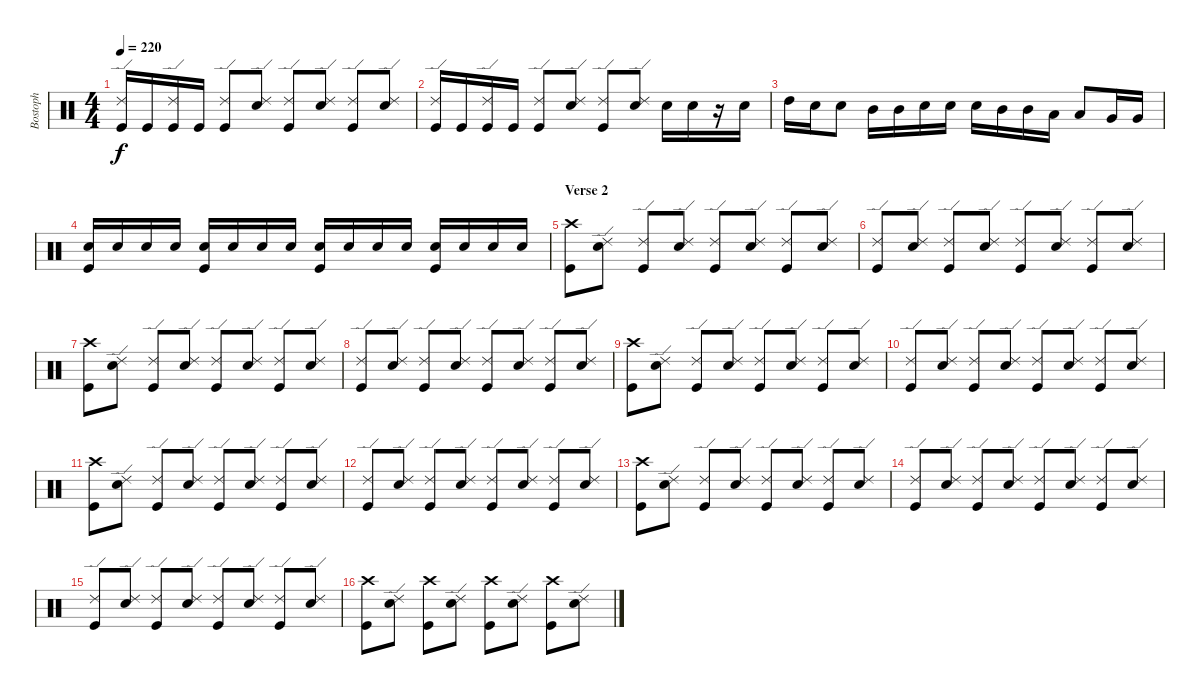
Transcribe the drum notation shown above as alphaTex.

\track ("Bostoph" "Bostoph") {instrument percussion}
\staff {score}
\articulation defaults
\ts (4 4)
\tempo 220
\clef neutral
\ks c
("Ride (edge) 2" "Kick (hit)").16{dy f} "Kick (hit)".16 ("Ride (edge) 2" "Kick (hit)").16 "Kick (hit)".16 ("Ride (edge) 2" "Kick (hit)").8 ("Ride (edge) 2" "Snare (hit) 2").8 ("Ride (edge) 2" "Kick (hit)").8 ("Ride (edge) 2" "Snare (hit) 2").8 ("Ride (edge) 2" "Kick (hit)").8 ("Ride (edge) 2" "Snare (hit) 2").8 |
("Ride (edge) 2" "Kick (hit)").16 "Kick (hit)".16 ("Ride (edge) 2" "Kick (hit)").16 "Kick (hit)".16 ("Ride (edge) 2" "Kick (hit)").8 ("Ride (edge) 2" "Snare (hit) 2").8 ("Ride (edge) 2" "Kick (hit)").8 ("Ride (edge) 2" "Snare (hit) 2").8 "Snare (hit) 2".16 "Snare (hit) 2".16 r.16 "Snare (hit) 2".16 |
"High Tom (hit)".16 "Snare (hit) 2".16 "Snare (hit) 2".8 "Mid Tom (hit)".16 "Mid Tom (hit)".16 "Snare (hit) 2".16 "Snare (hit) 2".16 "Snare (hit) 2".16 "Mid Tom (hit)".16 "Mid Tom (hit)".16 "Low Tom (hit)".16 "Low Tom (hit)".8 "Very Low Tom (hit)".16 "Very Low Tom (hit)".16 |
("Snare (hit) 2" "Kick (hit)").16 "Snare (hit) 2".16 "Snare (hit) 2".16 "Snare (hit) 2".16 ("Snare (hit) 2" "Kick (hit)").16 "Snare (hit) 2".16 "Snare (hit) 2".16 "Snare (hit) 2".16 ("Snare (hit) 2" "Kick (hit)").16 "Snare (hit) 2".16 "Snare (hit) 2".16 "Snare (hit) 2".16 ("Snare (hit) 2" "Kick (hit)").16 "Snare (hit) 2".16 "Snare (hit) 2".16 "Snare (hit) 2".16 |
\section ("" "Verse 2")
("Crash high (hit)" "Kick (hit)").8 ("Ride (edge) 2" "Snare (hit) 2").8 ("Ride (edge) 2" "Kick (hit)").8 ("Ride (edge) 2" "Snare (hit) 2").8 ("Ride (edge) 2" "Kick (hit)").8 ("Ride (edge) 2" "Snare (hit) 2").8 ("Ride (edge) 2" "Kick (hit)").8 ("Ride (edge) 2" "Snare (hit) 2").8 |
("Ride (edge) 2" "Kick (hit)").8 ("Ride (edge) 2" "Snare (hit) 2").8 ("Ride (edge) 2" "Kick (hit)").8 ("Ride (edge) 2" "Snare (hit) 2").8 ("Ride (edge) 2" "Kick (hit)").8 ("Ride (edge) 2" "Snare (hit) 2").8 ("Ride (edge) 2" "Kick (hit)").8 ("Ride (edge) 2" "Snare (hit) 2").8 |
("Crash high (hit)" "Kick (hit)").8 ("Ride (edge) 2" "Snare (hit) 2").8 ("Ride (edge) 2" "Kick (hit)").8 ("Ride (edge) 2" "Snare (hit) 2").8 ("Ride (edge) 2" "Kick (hit)").8 ("Ride (edge) 2" "Snare (hit) 2").8 ("Ride (edge) 2" "Kick (hit)").8 ("Ride (edge) 2" "Snare (hit) 2").8 |
("Ride (edge) 2" "Kick (hit)").8 ("Ride (edge) 2" "Snare (hit) 2").8 ("Ride (edge) 2" "Kick (hit)").8 ("Ride (edge) 2" "Snare (hit) 2").8 ("Ride (edge) 2" "Kick (hit)").8 ("Ride (edge) 2" "Snare (hit) 2").8 ("Ride (edge) 2" "Kick (hit)").8 ("Ride (edge) 2" "Snare (hit) 2").8 |
("Crash high (hit)" "Kick (hit)").8 ("Ride (edge) 2" "Snare (hit) 2").8 ("Ride (edge) 2" "Kick (hit)").8 ("Ride (edge) 2" "Snare (hit) 2").8 ("Ride (edge) 2" "Kick (hit)").8 ("Ride (edge) 2" "Snare (hit) 2").8 ("Ride (edge) 2" "Kick (hit)").8 ("Ride (edge) 2" "Snare (hit) 2").8 |
("Ride (edge) 2" "Kick (hit)").8 ("Ride (edge) 2" "Snare (hit) 2").8 ("Ride (edge) 2" "Kick (hit)").8 ("Ride (edge) 2" "Snare (hit) 2").8 ("Ride (edge) 2" "Kick (hit)").8 ("Ride (edge) 2" "Snare (hit) 2").8 ("Ride (edge) 2" "Kick (hit)").8 ("Ride (edge) 2" "Snare (hit) 2").8 |
("Crash high (hit)" "Kick (hit)").8 ("Ride (edge) 2" "Snare (hit) 2").8 ("Ride (edge) 2" "Kick (hit)").8 ("Ride (edge) 2" "Snare (hit) 2").8 ("Ride (edge) 2" "Kick (hit)").8 ("Ride (edge) 2" "Snare (hit) 2").8 ("Ride (edge) 2" "Kick (hit)").8 ("Ride (edge) 2" "Snare (hit) 2").8 |
("Ride (edge) 2" "Kick (hit)").8 ("Ride (edge) 2" "Snare (hit) 2").8 ("Ride (edge) 2" "Kick (hit)").8 ("Ride (edge) 2" "Snare (hit) 2").8 ("Ride (edge) 2" "Kick (hit)").8 ("Ride (edge) 2" "Snare (hit) 2").8 ("Ride (edge) 2" "Kick (hit)").8 ("Ride (edge) 2" "Snare (hit) 2").8 |
("Crash high (hit)" "Kick (hit)").8 ("Ride (edge) 2" "Snare (hit) 2").8 ("Ride (edge) 2" "Kick (hit)").8 ("Ride (edge) 2" "Snare (hit) 2").8 ("Ride (edge) 2" "Kick (hit)").8 ("Ride (edge) 2" "Snare (hit) 2").8 ("Ride (edge) 2" "Kick (hit)").8 ("Ride (edge) 2" "Snare (hit) 2").8 |
("Ride (edge) 2" "Kick (hit)").8 ("Ride (edge) 2" "Snare (hit) 2").8 ("Ride (edge) 2" "Kick (hit)").8 ("Ride (edge) 2" "Snare (hit) 2").8 ("Ride (edge) 2" "Kick (hit)").8 ("Ride (edge) 2" "Snare (hit) 2").8 ("Ride (edge) 2" "Kick (hit)").8 ("Ride (edge) 2" "Snare (hit) 2").8 |
("Ride (edge) 2" "Kick (hit)").8 ("Ride (edge) 2" "Snare (hit) 2").8 ("Ride (edge) 2" "Kick (hit)").8 ("Ride (edge) 2" "Snare (hit) 2").8 ("Ride (edge) 2" "Kick (hit)").8 ("Ride (edge) 2" "Snare (hit) 2").8 ("Ride (edge) 2" "Kick (hit)").8 ("Ride (edge) 2" "Snare (hit) 2").8 |
("Crash high (hit)" "Kick (hit)").8 ("Ride (edge) 2" "Snare (hit) 2").8 ("Crash high (hit)" "Kick (hit)").8 ("Ride (edge) 2" "Snare (hit) 2").8 ("Crash high (hit)" "Kick (hit)").8 ("Ride (edge) 2" "Snare (hit) 2").8 ("Crash high (hit)" "Kick (hit)").8 ("Ride (edge) 2" "Snare (hit) 2").8
